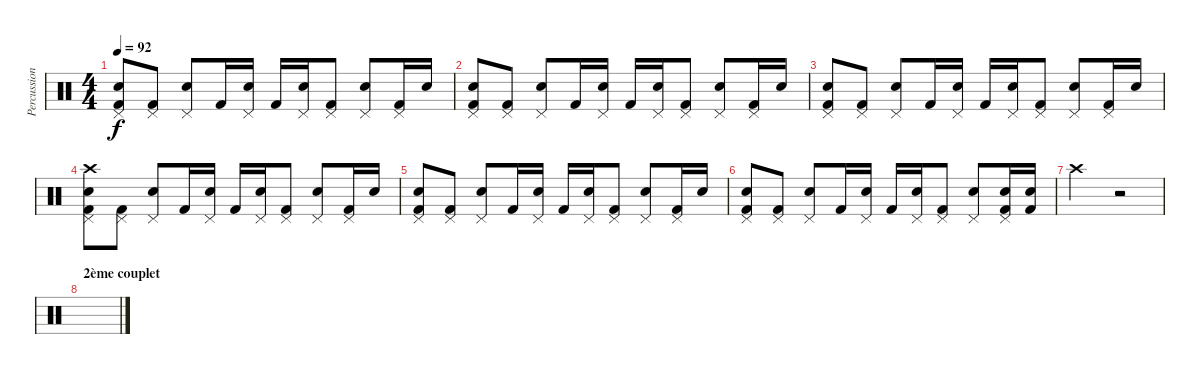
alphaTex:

\track ("Percussions" "Percussion") {instrument percussion}
\staff {score}
\articulation defaults
\ts (4 4)
\tempo 92
\clef neutral
\ks c
("Pedal Hi-Hat (hit)" "Electric Snare (hit)" "Kick (hit) 2").8{dy f} ("Pedal Hi-Hat (hit)" "Kick (hit) 2").8 ("Pedal Hi-Hat (hit)" "Electric Snare (hit)").8 "Kick (hit) 2".16 ("Pedal Hi-Hat (hit)" "Electric Snare (hit)").16 "Kick (hit) 2".16 ("Pedal Hi-Hat (hit)" "Electric Snare (hit)").16 ("Pedal Hi-Hat (hit)" "Kick (hit) 2").8 ("Pedal Hi-Hat (hit)" "Electric Snare (hit)").8 ("Pedal Hi-Hat (hit)" "Kick (hit) 2").16 "Electric Snare (hit)".16 |
("Pedal Hi-Hat (hit)" "Electric Snare (hit)" "Kick (hit) 2").8 ("Pedal Hi-Hat (hit)" "Kick (hit) 2").8 ("Pedal Hi-Hat (hit)" "Electric Snare (hit)").8 "Kick (hit) 2".16 ("Pedal Hi-Hat (hit)" "Electric Snare (hit)").16 "Kick (hit) 2".16 ("Pedal Hi-Hat (hit)" "Electric Snare (hit)").16 ("Pedal Hi-Hat (hit)" "Kick (hit) 2").8 ("Pedal Hi-Hat (hit)" "Electric Snare (hit)").8 ("Pedal Hi-Hat (hit)" "Kick (hit) 2").16 "Electric Snare (hit)".16 |
("Pedal Hi-Hat (hit)" "Electric Snare (hit)" "Kick (hit) 2").8 ("Pedal Hi-Hat (hit)" "Kick (hit) 2").8 ("Pedal Hi-Hat (hit)" "Electric Snare (hit)").8 "Kick (hit) 2".16 ("Pedal Hi-Hat (hit)" "Electric Snare (hit)").16 "Kick (hit) 2".16 ("Pedal Hi-Hat (hit)" "Electric Snare (hit)").16 ("Pedal Hi-Hat (hit)" "Kick (hit) 2").8 ("Pedal Hi-Hat (hit)" "Electric Snare (hit)").8 ("Pedal Hi-Hat (hit)" "Kick (hit) 2").16 "Electric Snare (hit)".16 |
("Pedal Hi-Hat (hit)" "Crash high (hit)" "Electric Snare (hit)" "Kick (hit) 2").8 ("Pedal Hi-Hat (hit)" "Kick (hit) 2").8 ("Pedal Hi-Hat (hit)" "Electric Snare (hit)").8 "Kick (hit) 2".16 ("Pedal Hi-Hat (hit)" "Electric Snare (hit)").16 "Kick (hit) 2".16 ("Pedal Hi-Hat (hit)" "Electric Snare (hit)").16 ("Pedal Hi-Hat (hit)" "Kick (hit) 2").8 ("Pedal Hi-Hat (hit)" "Electric Snare (hit)").8 ("Pedal Hi-Hat (hit)" "Kick (hit) 2").16 "Electric Snare (hit)".16 |
("Pedal Hi-Hat (hit)" "Electric Snare (hit)" "Kick (hit) 2").8 ("Pedal Hi-Hat (hit)" "Kick (hit) 2").8 ("Pedal Hi-Hat (hit)" "Electric Snare (hit)").8 "Kick (hit) 2".16 ("Pedal Hi-Hat (hit)" "Electric Snare (hit)").16 "Kick (hit) 2".16 ("Pedal Hi-Hat (hit)" "Electric Snare (hit)").16 ("Pedal Hi-Hat (hit)" "Kick (hit) 2").8 ("Pedal Hi-Hat (hit)" "Electric Snare (hit)").8 ("Pedal Hi-Hat (hit)" "Kick (hit) 2").16 "Electric Snare (hit)".16 |
("Pedal Hi-Hat (hit)" "Electric Snare (hit)" "Kick (hit) 2").8 ("Pedal Hi-Hat (hit)" "Kick (hit) 2").8 ("Pedal Hi-Hat (hit)" "Electric Snare (hit)").8 "Kick (hit) 2".16 ("Pedal Hi-Hat (hit)" "Electric Snare (hit)").16 "Kick (hit) 2".16 ("Pedal Hi-Hat (hit)" "Electric Snare (hit)").16 ("Pedal Hi-Hat (hit)" "Kick (hit) 2").8 ("Pedal Hi-Hat (hit)" "Electric Snare (hit)").8 ("Pedal Hi-Hat (hit)" "Electric Snare (hit)" "Kick (hit) 2").16 ("Electric Snare (hit)" "Kick (hit) 2").16 |
"Crash high (hit)".2 r.2 |
\section ("" "2ème couplet")
